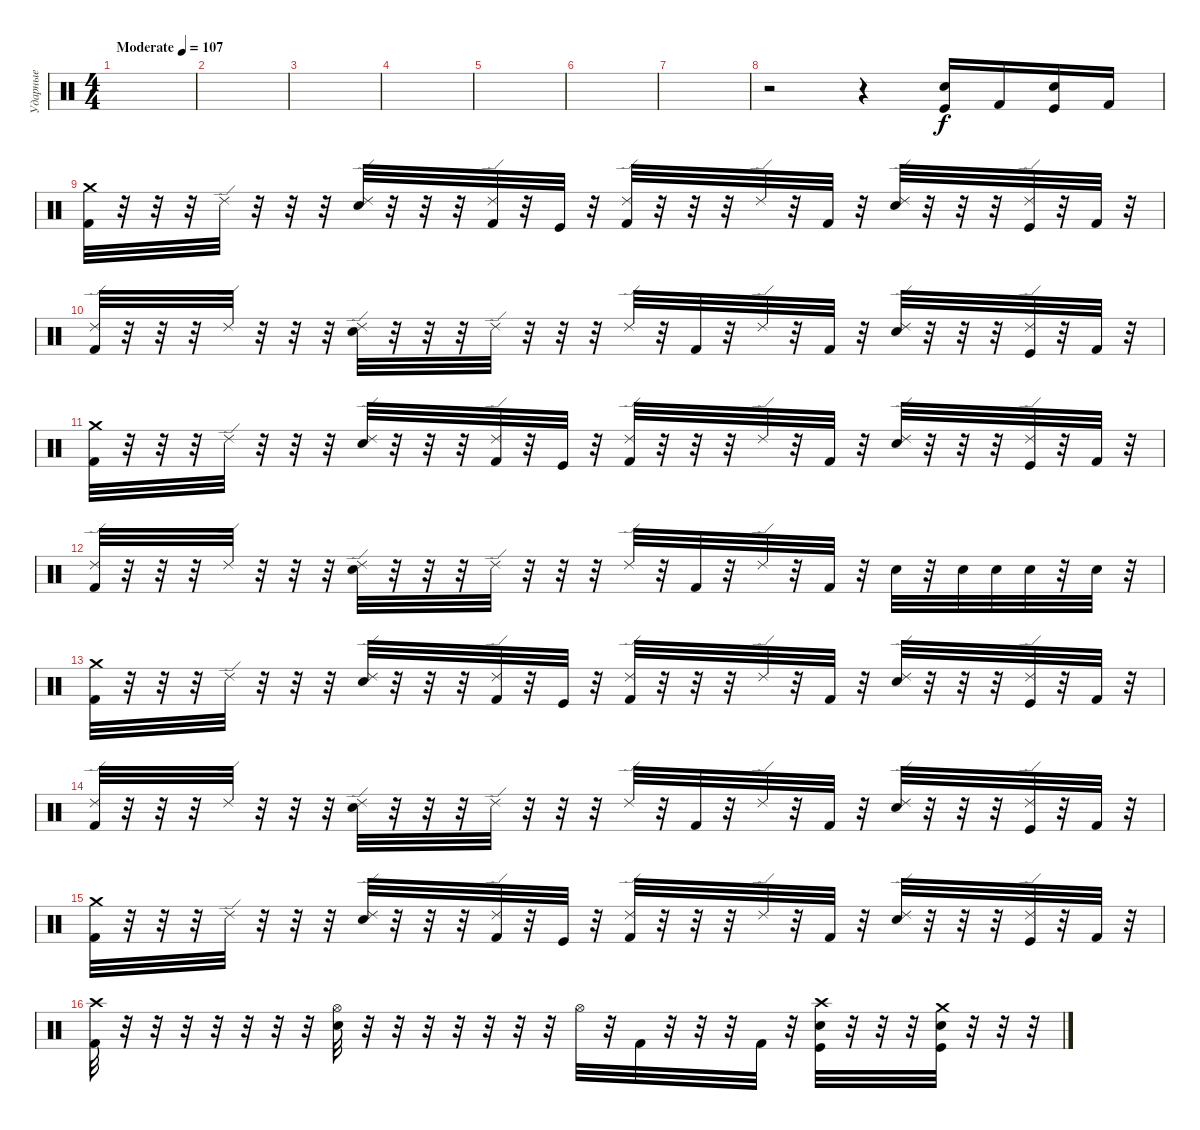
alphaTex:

\track ("Ударные" "Ударные") {instrument percussion}
\staff {score}
\articulation defaults
\ts (4 4)
\tempo (107 "Moderate")
\clef neutral
\ks c
|
|
|
|
|
|
|
r.2 r.4 ("Electric Snare (hit)" "Kick (hit)").16 "Kick (hit) 2".16 ("Electric Snare (hit)" "Kick (hit)").16 "Kick (hit) 2".16 |
("Crash medium (hit)" "Kick (hit) 2").32 r.32 r.32 r.32 "Ride (edge) 2".32 r.32 r.32 r.32 ("Ride (edge) 2" "Electric Snare (hit)").32 r.32 r.32 r.32 ("Ride (edge) 2" "Kick (hit) 2").32 r.32 "Kick (hit)".32 r.32 ("Ride (edge) 2" "Kick (hit) 2").32 r.32 r.32 r.32 "Ride (edge) 2".32 r.32 "Kick (hit) 2".32 r.32 ("Ride (edge) 2" "Electric Snare (hit)").32 r.32 r.32 r.32 ("Ride (edge) 2" "Kick (hit)").32 r.32 "Kick (hit) 2".32 r.32 |
("Ride (edge) 2" "Kick (hit) 2").32 r.32 r.32 r.32 "Ride (edge) 2".32 r.32 r.32 r.32 ("Ride (edge) 2" "Electric Snare (hit)").32 r.32 r.32 r.32 "Ride (edge) 2".32 r.32 r.32 r.32 "Ride (edge) 2".32 r.32 "Kick (hit) 2".32 r.32 "Ride (edge) 2".32 r.32 "Kick (hit) 2".32 r.32 ("Ride (edge) 2" "Electric Snare (hit)").32 r.32 r.32 r.32 ("Ride (edge) 2" "Kick (hit)").32 r.32 "Kick (hit) 2".32 r.32 |
("Crash medium (hit)" "Kick (hit) 2").32 r.32 r.32 r.32 "Ride (edge) 2".32 r.32 r.32 r.32 ("Ride (edge) 2" "Electric Snare (hit)").32 r.32 r.32 r.32 ("Ride (edge) 2" "Kick (hit) 2").32 r.32 "Kick (hit)".32 r.32 ("Ride (edge) 2" "Kick (hit) 2").32 r.32 r.32 r.32 "Ride (edge) 2".32 r.32 "Kick (hit) 2".32 r.32 ("Ride (edge) 2" "Electric Snare (hit)").32 r.32 r.32 r.32 ("Ride (edge) 2" "Kick (hit)").32 r.32 "Kick (hit) 2".32 r.32 |
("Ride (edge) 2" "Kick (hit) 2").32 r.32 r.32 r.32 "Ride (edge) 2".32 r.32 r.32 r.32 ("Ride (edge) 2" "Electric Snare (hit)").32 r.32 r.32 r.32 "Ride (edge) 2".32 r.32 r.32 r.32 "Ride (edge) 2".32 r.32 "Kick (hit) 2".32 r.32 "Ride (edge) 2".32 r.32 "Kick (hit) 2".32 r.32 "Electric Snare (hit)".32 r.32 "Electric Snare (hit)".32 "Electric Snare (hit)".32 "Electric Snare (hit)".32 r.32 "Electric Snare (hit)".32 r.32 |
("Crash medium (hit)" "Kick (hit) 2").32 r.32 r.32 r.32 "Ride (edge) 2".32 r.32 r.32 r.32 ("Ride (edge) 2" "Electric Snare (hit)").32 r.32 r.32 r.32 ("Ride (edge) 2" "Kick (hit) 2").32 r.32 "Kick (hit)".32 r.32 ("Ride (edge) 2" "Kick (hit) 2").32 r.32 r.32 r.32 "Ride (edge) 2".32 r.32 "Kick (hit) 2".32 r.32 ("Ride (edge) 2" "Electric Snare (hit)").32 r.32 r.32 r.32 ("Ride (edge) 2" "Kick (hit)").32 r.32 "Kick (hit) 2".32 r.32 |
("Ride (edge) 2" "Kick (hit) 2").32 r.32 r.32 r.32 "Ride (edge) 2".32 r.32 r.32 r.32 ("Ride (edge) 2" "Electric Snare (hit)").32 r.32 r.32 r.32 "Ride (edge) 2".32 r.32 r.32 r.32 "Ride (edge) 2".32 r.32 "Kick (hit) 2".32 r.32 "Ride (edge) 2".32 r.32 "Kick (hit) 2".32 r.32 ("Ride (edge) 2" "Electric Snare (hit)").32 r.32 r.32 r.32 ("Ride (edge) 2" "Kick (hit)").32 r.32 "Kick (hit) 2".32 r.32 |
("Crash medium (hit)" "Kick (hit) 2").32 r.32 r.32 r.32 "Ride (edge) 2".32 r.32 r.32 r.32 ("Ride (edge) 2" "Electric Snare (hit)").32 r.32 r.32 r.32 ("Ride (edge) 2" "Kick (hit) 2").32 r.32 "Kick (hit)".32 r.32 ("Ride (edge) 2" "Kick (hit) 2").32 r.32 r.32 r.32 "Ride (edge) 2".32 r.32 "Kick (hit) 2".32 r.32 ("Ride (edge) 2" "Electric Snare (hit)").32 r.32 r.32 r.32 ("Ride (edge) 2" "Kick (hit)").32 r.32 "Kick (hit) 2".32 r.32 |
("Crash high (hit)" "Kick (hit) 2").32 r.32 r.32 r.32 r.32 r.32 r.32 r.32 ("Hi-Hat (open)" "Electric Snare (hit)").32 r.32 r.32 r.32 r.32 r.32 r.32 r.32 "Hi-Hat (open)".32 r.32 "Kick (hit) 2".32 r.32 r.32 r.32 "Kick (hit) 2".32 r.32 ("Electric Snare (hit)" "Kick (hit)" "Crash high (hit)").32 r.32 r.32 r.32 ("Electric Snare (hit)" "Kick (hit)" "Crash medium (hit)").32 r.32 r.32 r.32
